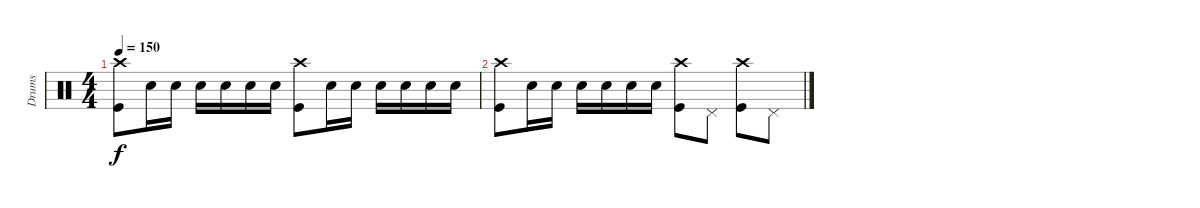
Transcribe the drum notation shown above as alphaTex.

\track ("Drums" "Drums") {instrument percussion}
\staff {score}
\articulation defaults
\ts (4 4)
\tempo 150
\clef neutral
\ks c
("Crash high (hit)" "Kick (hit)").8{dy f} "Snare (hit) 2".16 "Snare (hit) 2".16 "Snare (hit) 2".16 "Snare (hit) 2".16 "Snare (hit) 2".16 "Snare (hit) 2".16 ("Crash high (hit)" "Kick (hit)").8 "Snare (hit) 2".16 "Snare (hit) 2".16 "Snare (hit) 2".16 "Snare (hit) 2".16 "Snare (hit) 2".16 "Snare (hit) 2".16 |
("Crash high (hit)" "Kick (hit)").8 "Snare (hit) 2".16 "Snare (hit) 2".16 "Snare (hit) 2".16 "Snare (hit) 2".16 "Snare (hit) 2".16 "Snare (hit) 2".16 ("Crash high (hit)" "Kick (hit)").8 "Pedal Hi-Hat (hit)".8 ("Crash high (hit)" "Kick (hit)").8 "Pedal Hi-Hat (hit)".8
